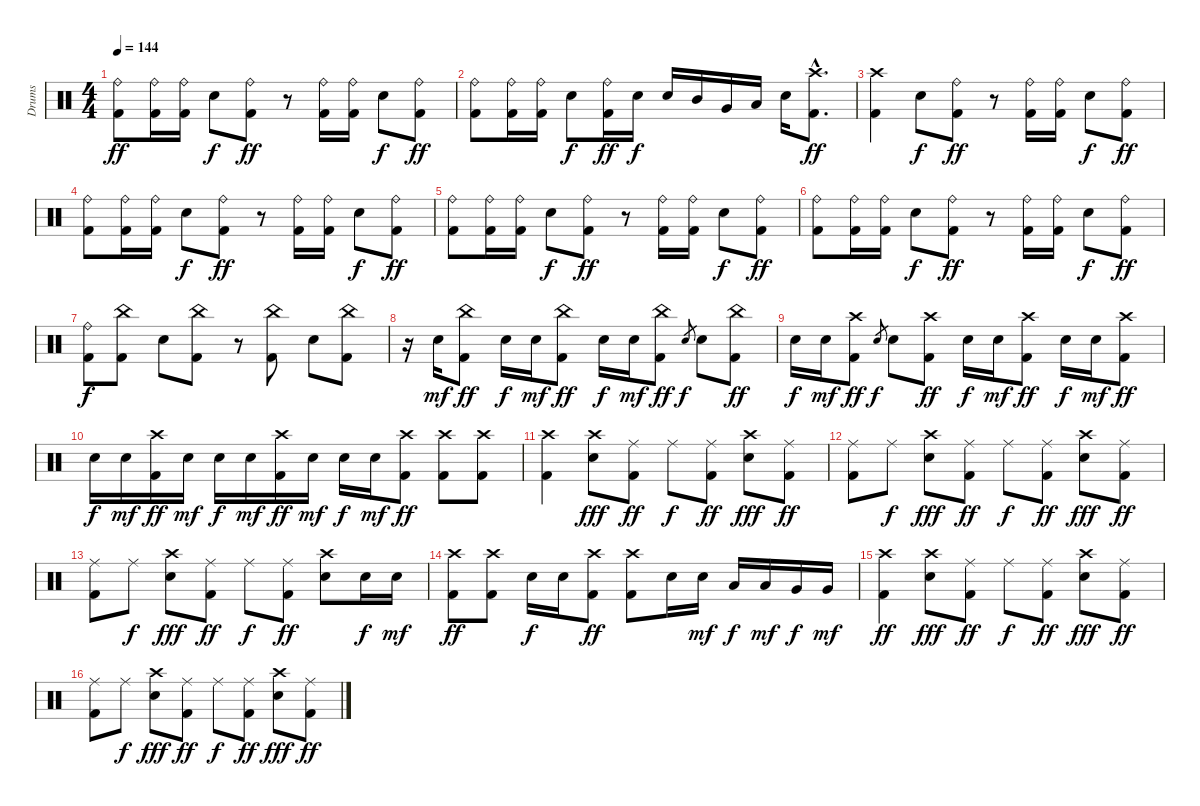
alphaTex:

\track ("Drums" "Drums") {instrument percussion}
\staff {score}
\articulation defaults
\ts (4 4)
\tempo 144
\clef neutral
\ks c
("Ride (bell)" "Kick (hit) 2").8{dy ff} ("Ride (bell)" "Kick (hit) 2").16 ("Ride (bell)" "Kick (hit) 2").16 "Snare (hit) 2".8{dy f} ("Ride (bell)" "Kick (hit) 2").8{dy ff} r.8 ("Ride (bell)" "Kick (hit) 2").16 ("Ride (bell)" "Kick (hit) 2").16 "Snare (hit) 2".8{dy f} ("Ride (bell)" "Kick (hit) 2").8{dy ff} |
("Ride (bell)" "Kick (hit) 2").8 ("Ride (bell)" "Kick (hit) 2").16 ("Ride (bell)" "Kick (hit) 2").16 "Snare (hit) 2".8{dy f} ("Ride (bell)" "Kick (hit) 2").16{dy ff} "Snare (hit) 2".16{dy f} "Snare (hit) 2".16 "Mid Tom (hit)".16 "Very Low Tom (hit)".16 "Low Tom (hit)".16 "Snare (hit) 2".16 ("Crash high (hit)"{hac} "Kick (hit) 2"{hac}).8{d dy ff} |
("Crash high (hit)" "Kick (hit) 2").4 "Snare (hit) 2".8{dy f} ("Ride (bell)" "Kick (hit) 2").8{dy ff} r.8 ("Ride (bell)" "Kick (hit) 2").16 ("Ride (bell)" "Kick (hit) 2").16 "Snare (hit) 2".8{dy f} ("Ride (bell)" "Kick (hit) 2").8{dy ff} |
("Ride (bell)" "Kick (hit) 2").8 ("Ride (bell)" "Kick (hit) 2").16 ("Ride (bell)" "Kick (hit) 2").16 "Snare (hit) 2".8{dy f} ("Ride (bell)" "Kick (hit) 2").8{dy ff} r.8 ("Ride (bell)" "Kick (hit) 2").16 ("Ride (bell)" "Kick (hit) 2").16 "Snare (hit) 2".8{dy f} ("Ride (bell)" "Kick (hit) 2").8{dy ff} |
("Ride (bell)" "Kick (hit) 2").8 ("Ride (bell)" "Kick (hit) 2").16 ("Ride (bell)" "Kick (hit) 2").16 "Snare (hit) 2".8{dy f} ("Ride (bell)" "Kick (hit) 2").8{dy ff} r.8 ("Ride (bell)" "Kick (hit) 2").16 ("Ride (bell)" "Kick (hit) 2").16 "Snare (hit) 2".8{dy f} ("Ride (bell)" "Kick (hit) 2").8{dy ff} |
("Ride (bell)" "Kick (hit) 2").8 ("Ride (bell)" "Kick (hit) 2").16 ("Ride (bell)" "Kick (hit) 2").16 "Snare (hit) 2".8{dy f} ("Ride (bell)" "Kick (hit) 2").8{dy ff} r.8 ("Ride (bell)" "Kick (hit) 2").16 ("Ride (bell)" "Kick (hit) 2").16 "Snare (hit) 2".8{dy f} ("Ride (bell)" "Kick (hit) 2").8{dy ff} |
("Ride (bell)" "Kick (hit) 2").8{dy f} ("China (hit)" "Kick (hit) 2").8 "Snare (hit) 2".8 ("China (hit)" "Kick (hit) 2").8 r.8 ("China (hit)" "Kick (hit) 2").8 "Snare (hit) 2".8 ("China (hit)" "Kick (hit) 2").8 |
r.16 "Snare (hit) 2".16{dy mf} ("China (hit)" "Kick (hit) 2").8{dy ff} "Snare (hit) 2".16{dy f} "Snare (hit) 2".16{dy mf} ("China (hit)" "Kick (hit) 2").8{dy ff} "Snare (hit) 2".16{dy f} "Snare (hit) 2".16{dy mf} ("China (hit)" "Kick (hit) 2").8{dy ff} "Snare (hit) 2".8{gr dy f} "Snare (hit) 2".8 ("China (hit)" "Kick (hit) 2").8{dy ff} |
"Snare (hit) 2".16{dy f} "Snare (hit) 2".16{dy mf} ("Crash high (hit)" "Kick (hit) 2").8{dy ff} "Snare (hit) 2".8{gr dy f} "Snare (hit) 2".8 ("Crash high (hit)" "Kick (hit) 2").8{dy ff} "Snare (hit) 2".16{dy f} "Snare (hit) 2".16{dy mf} ("Crash high (hit)" "Kick (hit) 2").8{dy ff} "Snare (hit) 2".16{dy f} "Snare (hit) 2".16{dy mf} ("Crash high (hit)" "Kick (hit) 2").8{dy ff} |
"Snare (hit) 2".16{dy f} "Snare (hit) 2".16{dy mf} ("Crash high (hit)" "Kick (hit) 2").16{dy ff} "Snare (hit) 2".16{dy mf} "Snare (hit) 2".16{dy f} "Snare (hit) 2".16{dy mf} ("Crash high (hit)" "Kick (hit) 2").16{dy ff} "Snare (hit) 2".16{dy mf} "Snare (hit) 2".16{dy f} "Snare (hit) 2".16{dy mf} ("Crash high (hit)" "Kick (hit) 2").8{dy ff} ("Crash high (hit)" "Kick (hit) 2").8 ("Crash high (hit)" "Kick (hit) 2").8 |
("Crash high (hit)" "Kick (hit) 2").4 ("Crash high (hit)" "Snare (hit) 2").8{dy fff} ("Ride (middle)" "Kick (hit) 2").8{dy ff} "Ride (middle)".8{dy f} ("Ride (middle)" "Kick (hit) 2").8{dy ff} ("Crash high (hit)" "Snare (hit) 2").8{dy fff} ("Ride (middle)" "Kick (hit) 2").8{dy ff} |
("Ride (middle)" "Kick (hit) 2").8 "Ride (middle)".8{dy f} ("Crash high (hit)" "Snare (hit) 2").8{dy fff} ("Ride (middle)" "Kick (hit) 2").8{dy ff} "Ride (middle)".8{dy f} ("Ride (middle)" "Kick (hit) 2").8{dy ff} ("Crash high (hit)" "Snare (hit) 2").8{dy fff} ("Ride (middle)" "Kick (hit) 2").8{dy ff} |
("Ride (middle)" "Kick (hit) 2").8 "Ride (middle)".8{dy f} ("Crash high (hit)" "Snare (hit) 2").8{dy fff} ("Ride (middle)" "Kick (hit) 2").8{dy ff} "Ride (middle)".8{dy f} ("Ride (middle)" "Kick (hit) 2").8{dy ff} ("Crash high (hit)" "Snare (hit) 2").8 "Snare (hit) 2".16{dy f} "Snare (hit) 2".16{dy mf} |
("Crash high (hit)" "Kick (hit) 2").8{dy ff} ("Crash high (hit)" "Kick (hit) 2").8 "Snare (hit) 2".16{dy f} "Snare (hit) 2".16 ("Crash high (hit)" "Kick (hit) 2").8{dy ff} ("Crash high (hit)" "Kick (hit) 2").8 "Snare (hit) 2".16 "Snare (hit) 2".16{dy mf} "Low Tom (hit)".16{dy f} "Low Tom (hit)".16{dy mf} "Very Low Tom (hit)".16{dy f} "Very Low Tom (hit)".16{dy mf} |
("Crash high (hit)" "Kick (hit) 2").4{dy ff} ("Crash high (hit)" "Snare (hit) 2").8{dy fff} ("Ride (middle)" "Kick (hit) 2").8{dy ff} "Ride (middle)".8{dy f} ("Ride (middle)" "Kick (hit) 2").8{dy ff} ("Crash high (hit)" "Snare (hit) 2").8{dy fff} ("Ride (middle)" "Kick (hit) 2").8{dy ff} |
("Ride (middle)" "Kick (hit) 2").8 "Ride (middle)".8{dy f} ("Crash high (hit)" "Snare (hit) 2").8{dy fff} ("Ride (middle)" "Kick (hit) 2").8{dy ff} "Ride (middle)".8{dy f} ("Ride (middle)" "Kick (hit) 2").8{dy ff} ("Crash high (hit)" "Snare (hit) 2").8{dy fff} ("Ride (middle)" "Kick (hit) 2").8{dy ff}
